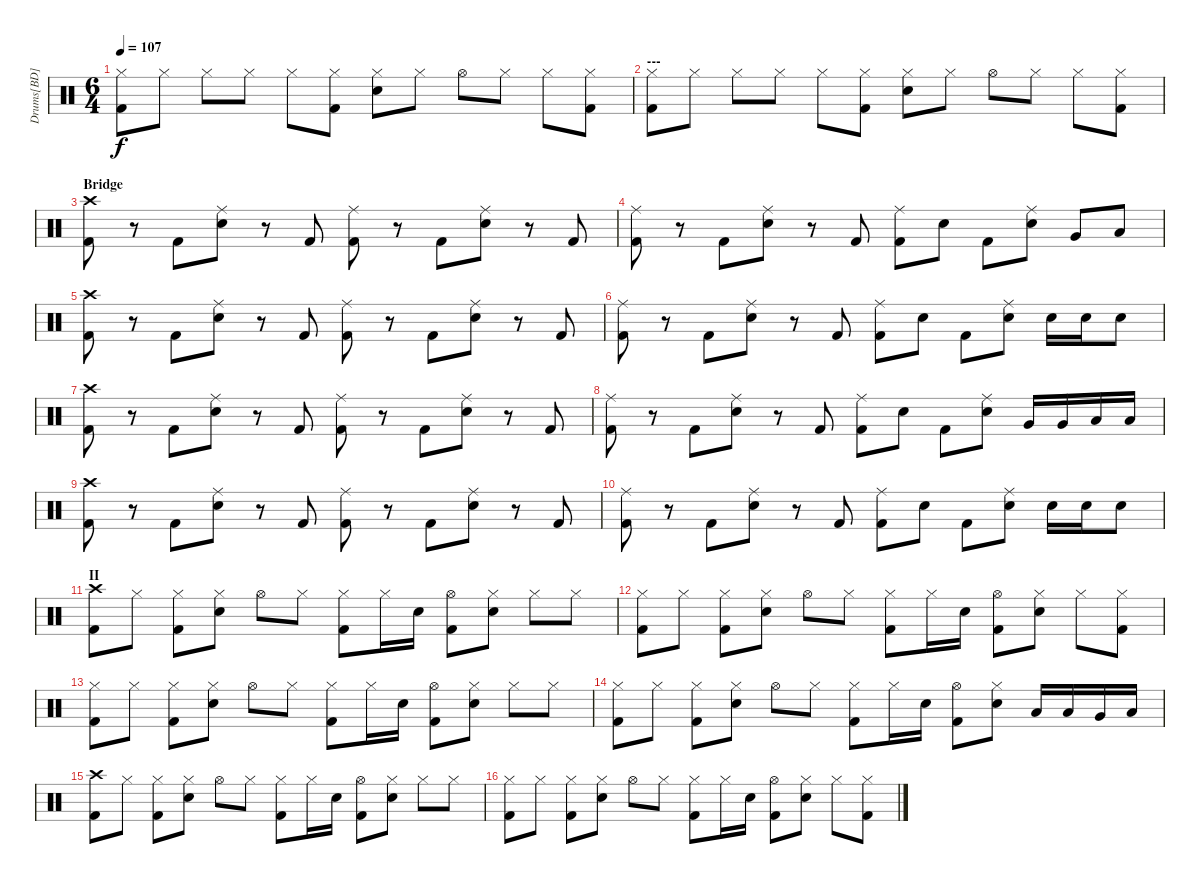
\track ("Drums[BD]" "Drums[BD]") {instrument percussion}
\staff {score}
\articulation defaults
\ts (6 4)
\tempo 107
\clef neutral
\ks c
("Kick (hit) 2" "Hi-Hat (closed)").8{dy f} "Hi-Hat (closed)".8 "Hi-Hat (closed)".8 "Hi-Hat (closed)".8 "Hi-Hat (closed)".8 ("Kick (hit) 2" "Hi-Hat (closed)").8 ("Electric Snare (hit)" "Hi-Hat (closed)").8 "Hi-Hat (closed)".8 "Hi-Hat (open)".8 "Hi-Hat (closed)".8 "Hi-Hat (closed)".8 ("Kick (hit) 2" "Hi-Hat (closed)").8 |
\section ("" "---")
("Kick (hit) 2" "Hi-Hat (closed)").8 "Hi-Hat (closed)".8 "Hi-Hat (closed)".8 "Hi-Hat (closed)".8 "Hi-Hat (closed)".8 ("Kick (hit) 2" "Hi-Hat (closed)").8 ("Electric Snare (hit)" "Hi-Hat (closed)").8 "Hi-Hat (closed)".8 "Hi-Hat (open)".8 "Hi-Hat (closed)".8 "Hi-Hat (closed)".8 ("Kick (hit) 2" "Hi-Hat (closed)").8 |
\section ("" "Bridge")
("Kick (hit) 2" "Crash high (hit)").8 r.8 "Kick (hit) 2".8 ("Electric Snare (hit)" "Ride (middle)").8 r.8 "Kick (hit) 2".8 ("Kick (hit) 2" "Ride (middle)").8 r.8 "Kick (hit) 2".8 ("Electric Snare (hit)" "Ride (middle)").8 r.8 "Kick (hit) 2".8 |
("Kick (hit) 2" "Ride (middle)").8 r.8 "Kick (hit) 2".8 ("Electric Snare (hit)" "Ride (middle)").8 r.8 "Kick (hit) 2".8 ("Kick (hit) 2" "Ride (middle)").8 "Electric Snare (hit)".8 "Kick (hit) 2".8 ("Electric Snare (hit)" "Ride (middle)").8 "Very Low Tom (hit)".8 "Low Floor Tom (hit)".8 |
("Kick (hit) 2" "Crash high (hit)").8 r.8 "Kick (hit) 2".8 ("Electric Snare (hit)" "Ride (middle)").8 r.8 "Kick (hit) 2".8 ("Kick (hit) 2" "Ride (middle)").8 r.8 "Kick (hit) 2".8 ("Electric Snare (hit)" "Ride (middle)").8 r.8 "Kick (hit) 2".8 |
("Kick (hit) 2" "Ride (middle)").8 r.8 "Kick (hit) 2".8 ("Electric Snare (hit)" "Ride (middle)").8 r.8 "Kick (hit) 2".8 ("Kick (hit) 2" "Ride (middle)").8 "Electric Snare (hit)".8 "Kick (hit) 2".8 ("Electric Snare (hit)" "Ride (middle)").8 "Electric Snare (hit)".16 "Electric Snare (hit)".16 "Electric Snare (hit)".8 |
("Kick (hit) 2" "Crash high (hit)").8 r.8 "Kick (hit) 2".8 ("Electric Snare (hit)" "Ride (middle)").8 r.8 "Kick (hit) 2".8 ("Kick (hit) 2" "Ride (middle)").8 r.8 "Kick (hit) 2".8 ("Electric Snare (hit)" "Ride (middle)").8 r.8 "Kick (hit) 2".8 |
("Kick (hit) 2" "Ride (middle)").8 r.8 "Kick (hit) 2".8 ("Electric Snare (hit)" "Ride (middle)").8 r.8 "Kick (hit) 2".8 ("Kick (hit) 2" "Ride (middle)").8 "Electric Snare (hit)".8 "Kick (hit) 2".8 ("Electric Snare (hit)" "Ride (middle)").8 "Very Low Tom (hit)".16 "Very Low Tom (hit)".16 "Low Floor Tom (hit)".16 "Low Floor Tom (hit)".16 |
("Kick (hit) 2" "Crash high (hit)").8 r.8 "Kick (hit) 2".8 ("Electric Snare (hit)" "Ride (middle)").8 r.8 "Kick (hit) 2".8 ("Kick (hit) 2" "Ride (middle)").8 r.8 "Kick (hit) 2".8 ("Electric Snare (hit)" "Ride (middle)").8 r.8 "Kick (hit) 2".8 |
("Kick (hit) 2" "Ride (middle)").8 r.8 "Kick (hit) 2".8 ("Electric Snare (hit)" "Ride (middle)").8 r.8 "Kick (hit) 2".8 ("Kick (hit) 2" "Ride (middle)").8 "Electric Snare (hit)".8 "Kick (hit) 2".8 ("Electric Snare (hit)" "Ride (middle)").8 "Electric Snare (hit)".16 "Electric Snare (hit)".16 "Electric Snare (hit)".8 |
\section ("" "II")
("Kick (hit) 2" "Crash high (hit)").8 "Hi-Hat (closed)".8 ("Kick (hit) 2" "Hi-Hat (closed)").8 ("Electric Snare (hit)" "Hi-Hat (closed)").8 "Hi-Hat (open)".8 "Hi-Hat (closed)".8 ("Kick (hit) 2" "Hi-Hat (closed)").8 "Hi-Hat (closed)".16 "Electric Snare (hit)".16 ("Kick (hit) 2" "Hi-Hat (open)").8 ("Electric Snare (hit)" "Hi-Hat (closed)").8 "Hi-Hat (closed)".8 "Hi-Hat (closed)".8 |
("Kick (hit) 2" "Hi-Hat (closed)").8 "Hi-Hat (closed)".8 ("Kick (hit) 2" "Hi-Hat (closed)").8 ("Electric Snare (hit)" "Hi-Hat (closed)").8 "Hi-Hat (open)".8 "Hi-Hat (closed)".8 ("Kick (hit) 2" "Hi-Hat (closed)").8 "Hi-Hat (closed)".16 "Electric Snare (hit)".16 ("Kick (hit) 2" "Hi-Hat (open)").8 ("Electric Snare (hit)" "Hi-Hat (closed)").8 "Hi-Hat (closed)".8 ("Kick (hit) 2" "Hi-Hat (closed)").8 |
("Kick (hit) 2" "Hi-Hat (closed)").8 "Hi-Hat (closed)".8 ("Kick (hit) 2" "Hi-Hat (closed)").8 ("Electric Snare (hit)" "Hi-Hat (closed)").8 "Hi-Hat (open)".8 "Hi-Hat (closed)".8 ("Kick (hit) 2" "Hi-Hat (closed)").8 "Hi-Hat (closed)".16 "Electric Snare (hit)".16 ("Kick (hit) 2" "Hi-Hat (open)").8 ("Electric Snare (hit)" "Hi-Hat (closed)").8 "Hi-Hat (closed)".8 "Hi-Hat (closed)".8 |
("Kick (hit) 2" "Hi-Hat (closed)").8 "Hi-Hat (closed)".8 ("Kick (hit) 2" "Hi-Hat (closed)").8 ("Electric Snare (hit)" "Hi-Hat (closed)").8 "Hi-Hat (open)".8 "Hi-Hat (closed)".8 ("Kick (hit) 2" "Hi-Hat (closed)").8 "Hi-Hat (closed)".16 "Electric Snare (hit)".16 ("Kick (hit) 2" "Hi-Hat (open)").8 ("Electric Snare (hit)" "Hi-Hat (closed)").8 "Low Tom (hit)".16 "Low Tom (hit)".16 "Very Low Tom (hit)".16 "Low Floor Tom (hit)".16 |
("Kick (hit) 2" "Crash high (hit)").8 "Hi-Hat (closed)".8 ("Kick (hit) 2" "Hi-Hat (closed)").8 ("Electric Snare (hit)" "Hi-Hat (closed)").8 "Hi-Hat (open)".8 "Hi-Hat (closed)".8 ("Kick (hit) 2" "Hi-Hat (closed)").8 "Hi-Hat (closed)".16 "Electric Snare (hit)".16 ("Kick (hit) 2" "Hi-Hat (open)").8 ("Electric Snare (hit)" "Hi-Hat (closed)").8 "Hi-Hat (closed)".8 "Hi-Hat (closed)".8 |
("Kick (hit) 2" "Hi-Hat (closed)").8 "Hi-Hat (closed)".8 ("Kick (hit) 2" "Hi-Hat (closed)").8 ("Electric Snare (hit)" "Hi-Hat (closed)").8 "Hi-Hat (open)".8 "Hi-Hat (closed)".8 ("Kick (hit) 2" "Hi-Hat (closed)").8 "Hi-Hat (closed)".16 "Electric Snare (hit)".16 ("Kick (hit) 2" "Hi-Hat (open)").8 ("Electric Snare (hit)" "Hi-Hat (closed)").8 "Hi-Hat (closed)".8 ("Kick (hit) 2" "Hi-Hat (closed)").8
